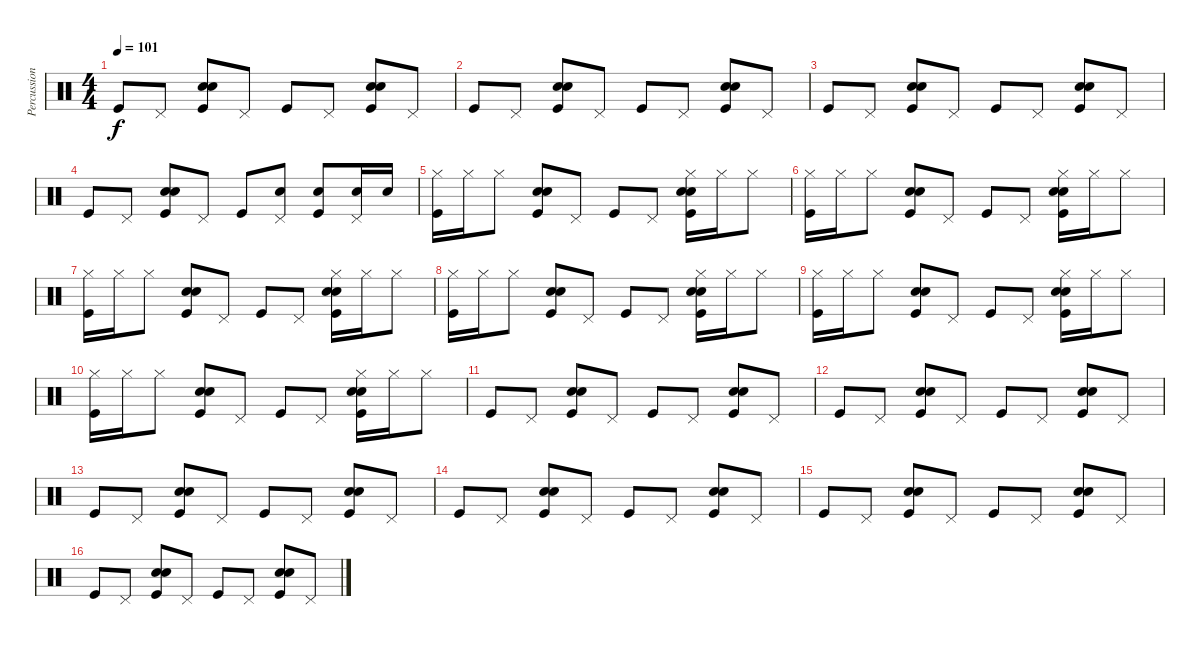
\track ("Percussion" "Percussion") {instrument percussion}
\staff {score}
\articulation defaults
\ts (4 4)
\tempo 101
\clef neutral
\ks c "Kick (hit)".8{dy f} "Pedal Hi-Hat (hit)".8
("Kick (hit)" "Snare (hit) 2" "Electric Snare (hit)").8 "Pedal Hi-Hat (hit)".8 "Kick (hit)".8 "Pedal Hi-Hat (hit)".8 ("Kick (hit)" "Snare (hit) 2" "Electric Snare (hit)").8 "Pedal Hi-Hat (hit)".8 |
"Kick (hit)".8 "Pedal Hi-Hat (hit)".8 ("Kick (hit)" "Snare (hit) 2" "Electric Snare (hit)").8 "Pedal Hi-Hat (hit)".8 "Kick (hit)".8 "Pedal Hi-Hat (hit)".8 ("Kick (hit)" "Snare (hit) 2" "Electric Snare (hit)").8 "Pedal Hi-Hat (hit)".8 |
"Kick (hit)".8 "Pedal Hi-Hat (hit)".8 ("Kick (hit)" "Snare (hit) 2" "Electric Snare (hit)").8 "Pedal Hi-Hat (hit)".8 "Kick (hit)".8 "Pedal Hi-Hat (hit)".8 ("Kick (hit)" "Snare (hit) 2" "Electric Snare (hit)").8 "Pedal Hi-Hat (hit)".8 |
"Kick (hit)".8 "Pedal Hi-Hat (hit)".8 ("Kick (hit)" "Snare (hit) 2" "Electric Snare (hit)").8 "Pedal Hi-Hat (hit)".8 "Kick (hit)".8 ("Electric Snare (hit)" "Pedal Hi-Hat (hit)").8 ("Kick (hit)" "Snare (hit) 2").8 ("Electric Snare (hit)" "Pedal Hi-Hat (hit)").16 "Electric Snare (hit)".16 |
("Kick (hit)" "Hi-Hat (closed)").16 "Hi-Hat (closed)".16 "Hi-Hat (closed)".8 ("Kick (hit)" "Snare (hit) 2" "Electric Snare (hit)").8 "Pedal Hi-Hat (hit)".8 "Kick (hit)".8 "Pedal Hi-Hat (hit)".8 ("Kick (hit)" "Snare (hit) 2" "Electric Snare (hit)" "Hi-Hat (closed)").16 "Hi-Hat (closed)".16 "Hi-Hat (closed)".8 |
("Kick (hit)" "Hi-Hat (closed)").16 "Hi-Hat (closed)".16 "Hi-Hat (closed)".8 ("Kick (hit)" "Snare (hit) 2" "Electric Snare (hit)").8 "Pedal Hi-Hat (hit)".8 "Kick (hit)".8 "Pedal Hi-Hat (hit)".8 ("Kick (hit)" "Snare (hit) 2" "Electric Snare (hit)" "Hi-Hat (closed)").16 "Hi-Hat (closed)".16 "Hi-Hat (closed)".8 |
("Kick (hit)" "Hi-Hat (closed)").16 "Hi-Hat (closed)".16 "Hi-Hat (closed)".8 ("Kick (hit)" "Snare (hit) 2" "Electric Snare (hit)").8 "Pedal Hi-Hat (hit)".8 "Kick (hit)".8 "Pedal Hi-Hat (hit)".8 ("Kick (hit)" "Snare (hit) 2" "Electric Snare (hit)" "Hi-Hat (closed)").16 "Hi-Hat (closed)".16 "Hi-Hat (closed)".8 |
("Kick (hit)" "Hi-Hat (closed)").16 "Hi-Hat (closed)".16 "Hi-Hat (closed)".8 ("Kick (hit)" "Snare (hit) 2" "Electric Snare (hit)").8 "Pedal Hi-Hat (hit)".8 "Kick (hit)".8 "Pedal Hi-Hat (hit)".8 ("Kick (hit)" "Snare (hit) 2" "Electric Snare (hit)" "Hi-Hat (closed)").16 "Hi-Hat (closed)".16 "Hi-Hat (closed)".8 |
("Kick (hit)" "Hi-Hat (closed)").16 "Hi-Hat (closed)".16 "Hi-Hat (closed)".8 ("Kick (hit)" "Snare (hit) 2" "Electric Snare (hit)").8 "Pedal Hi-Hat (hit)".8 "Kick (hit)".8 "Pedal Hi-Hat (hit)".8 ("Kick (hit)" "Snare (hit) 2" "Electric Snare (hit)" "Hi-Hat (closed)").16 "Hi-Hat (closed)".16 "Hi-Hat (closed)".8 |
("Kick (hit)" "Hi-Hat (closed)").16 "Hi-Hat (closed)".16 "Hi-Hat (closed)".8 ("Kick (hit)" "Snare (hit) 2" "Electric Snare (hit)").8 "Pedal Hi-Hat (hit)".8 "Kick (hit)".8 "Pedal Hi-Hat (hit)".8 ("Kick (hit)" "Snare (hit) 2" "Electric Snare (hit)" "Hi-Hat (closed)").16 "Hi-Hat (closed)".16 "Hi-Hat (closed)".8 |
"Kick (hit)".8 "Pedal Hi-Hat (hit)".8 ("Kick (hit)" "Snare (hit) 2" "Electric Snare (hit)").8 "Pedal Hi-Hat (hit)".8 "Kick (hit)".8 "Pedal Hi-Hat (hit)".8 ("Kick (hit)" "Snare (hit) 2" "Electric Snare (hit)").8 "Pedal Hi-Hat (hit)".8 |
"Kick (hit)".8 "Pedal Hi-Hat (hit)".8 ("Kick (hit)" "Snare (hit) 2" "Electric Snare (hit)").8 "Pedal Hi-Hat (hit)".8 "Kick (hit)".8 "Pedal Hi-Hat (hit)".8 ("Kick (hit)" "Snare (hit) 2" "Electric Snare (hit)").8 "Pedal Hi-Hat (hit)".8 |
"Kick (hit)".8 "Pedal Hi-Hat (hit)".8 ("Kick (hit)" "Snare (hit) 2" "Electric Snare (hit)").8 "Pedal Hi-Hat (hit)".8 "Kick (hit)".8 "Pedal Hi-Hat (hit)".8 ("Kick (hit)" "Snare (hit) 2" "Electric Snare (hit)").8 "Pedal Hi-Hat (hit)".8 |
"Kick (hit)".8 "Pedal Hi-Hat (hit)".8 ("Kick (hit)" "Snare (hit) 2" "Electric Snare (hit)").8 "Pedal Hi-Hat (hit)".8 "Kick (hit)".8 "Pedal Hi-Hat (hit)".8 ("Kick (hit)" "Snare (hit) 2" "Electric Snare (hit)").8 "Pedal Hi-Hat (hit)".8 |
"Kick (hit)".8 "Pedal Hi-Hat (hit)".8 ("Kick (hit)" "Snare (hit) 2" "Electric Snare (hit)").8 "Pedal Hi-Hat (hit)".8 "Kick (hit)".8 "Pedal Hi-Hat (hit)".8 ("Kick (hit)" "Snare (hit) 2" "Electric Snare (hit)").8 "Pedal Hi-Hat (hit)".8 |
"Kick (hit)".8 "Pedal Hi-Hat (hit)".8 ("Kick (hit)" "Snare (hit) 2" "Electric Snare (hit)").8 "Pedal Hi-Hat (hit)".8 "Kick (hit)".8 "Pedal Hi-Hat (hit)".8 ("Kick (hit)" "Snare (hit) 2" "Electric Snare (hit)").8 "Pedal Hi-Hat (hit)".8
